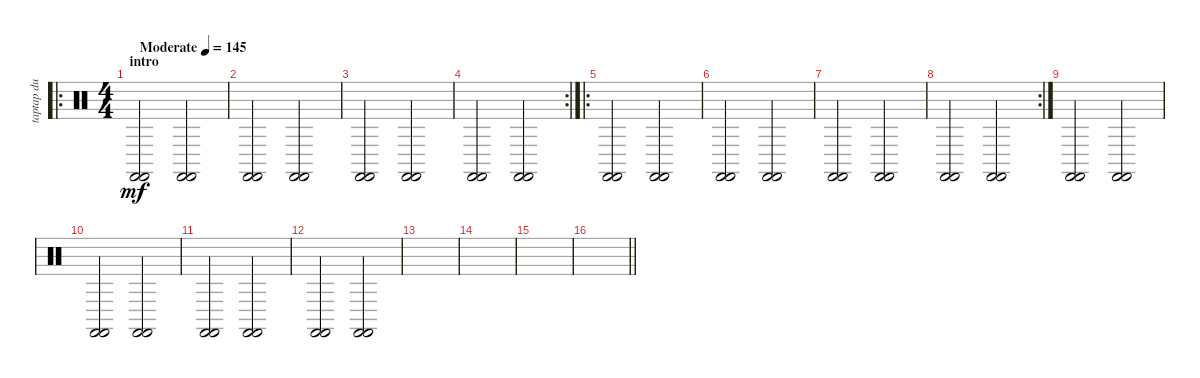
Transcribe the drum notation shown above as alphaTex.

\track ("taptap du pied" "taptap du ") {instrument percussion}
\staff {score}
\articulation defaults
\ro
\ts (4 4)
\section ("" "intro")
\tempo (145 "Moderate")
\clef neutral
\ks c
("Castanets (hit)" "Castanets (hit)").2{dy mf} ("Castanets (hit)" "Castanets (hit)").2 |
("Castanets (hit)" "Castanets (hit)").2 ("Castanets (hit)" "Castanets (hit)").2 |
("Castanets (hit)" "Castanets (hit)").2 ("Castanets (hit)" "Castanets (hit)").2 |
\rc 2
("Castanets (hit)" "Castanets (hit)").2 ("Castanets (hit)" "Castanets (hit)").2 |
\ro
("Castanets (hit)" "Castanets (hit)").2 ("Castanets (hit)" "Castanets (hit)").2 |
("Castanets (hit)" "Castanets (hit)").2 ("Castanets (hit)" "Castanets (hit)").2 |
("Castanets (hit)" "Castanets (hit)").2 ("Castanets (hit)" "Castanets (hit)").2 |
\rc 2
("Castanets (hit)" "Castanets (hit)").2 ("Castanets (hit)" "Castanets (hit)").2 |
("Castanets (hit)" "Castanets (hit)").2 ("Castanets (hit)" "Castanets (hit)").2 |
("Castanets (hit)" "Castanets (hit)").2 ("Castanets (hit)" "Castanets (hit)").2 |
("Castanets (hit)" "Castanets (hit)").2 ("Castanets (hit)" "Castanets (hit)").2 |
("Castanets (hit)" "Castanets (hit)").2 ("Castanets (hit)" "Castanets (hit)").2 |
|
|
|
\barLineRight lightlight
